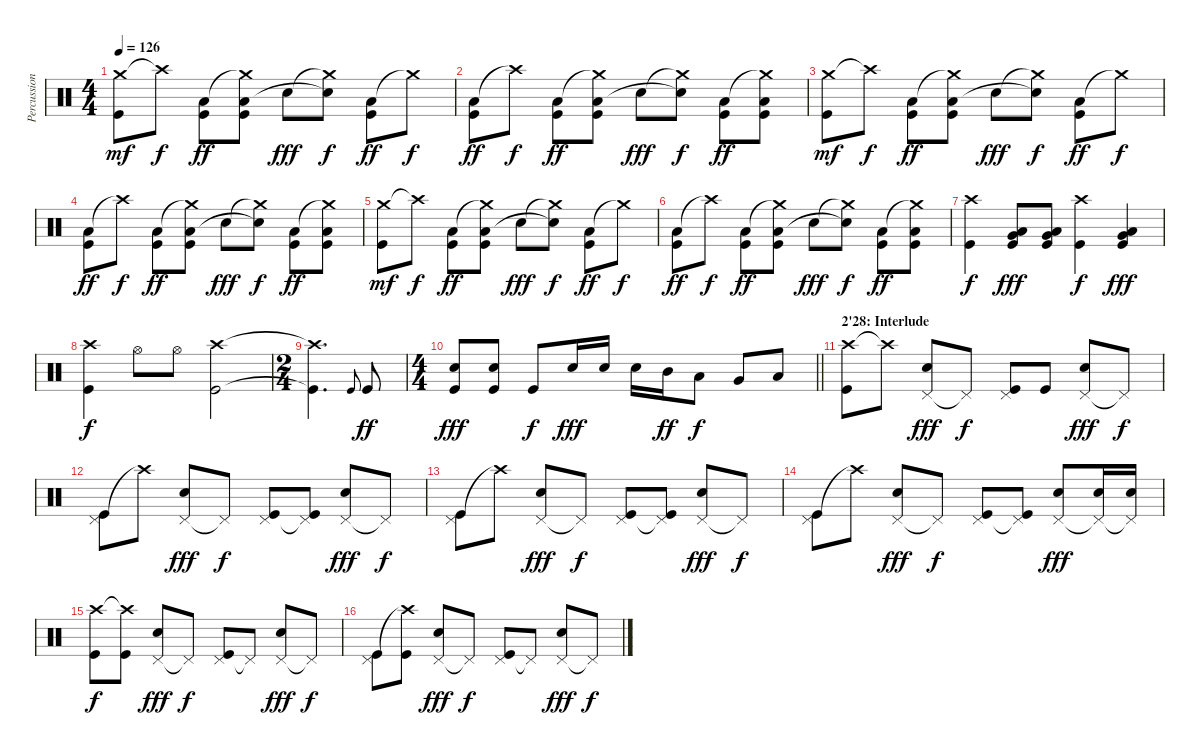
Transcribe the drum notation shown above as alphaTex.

\track ("Percussions" "Percussion") {instrument percussion}
\staff {score}
\articulation defaults
\ts (4 4)
\tempo 126
\clef neutral
\ks c
("Crash medium (hit)" "Kick (hit)").8{dy mf} "Crash high (hit)"{t}.8{dy f} ("Low Floor Tom (hit)" "Kick (hit)").8{dy ff} ("Crash medium (hit)"{t} "Low Floor Tom (hit)" "Kick (hit)").8 "Snare (hit) 2".8{dy fff} ("Crash medium (hit)"{t} "Snare (hit) 2"{t}).8{dy f} ("Low Floor Tom (hit)" "Kick (hit)").8{dy ff} "Crash medium (hit)"{t}.8{dy f} |
("Low Floor Tom (hit)" "Kick (hit)").8{dy ff} "Crash high (hit)"{t}.8{dy f} ("Low Floor Tom (hit)" "Kick (hit)").8{dy ff} ("Crash medium (hit)"{t} "Low Floor Tom (hit)" "Kick (hit)").8 "Snare (hit) 2".8{dy fff} ("Crash medium (hit)"{t} "Snare (hit) 2"{t}).8{dy f} ("Low Floor Tom (hit)" "Kick (hit)").8{dy ff} ("Crash medium (hit)"{t} "Low Floor Tom (hit)" "Kick (hit)").8 |
("Crash medium (hit)" "Kick (hit)").8{dy mf} "Crash high (hit)"{t}.8{dy f} ("Low Floor Tom (hit)" "Kick (hit)").8{dy ff} ("Crash medium (hit)"{t} "Low Floor Tom (hit)" "Kick (hit)").8 "Snare (hit) 2".8{dy fff} ("Crash medium (hit)"{t} "Snare (hit) 2"{t}).8{dy f} ("Low Floor Tom (hit)" "Kick (hit)").8{dy ff} "Crash medium (hit)"{t}.8{dy f} |
("Low Floor Tom (hit)" "Kick (hit)").8{dy ff} "Crash high (hit)"{t}.8{dy f} ("Low Floor Tom (hit)" "Kick (hit)").8{dy ff} ("Crash medium (hit)"{t} "Low Floor Tom (hit)" "Kick (hit)").8 "Snare (hit) 2".8{dy fff} ("Crash medium (hit)"{t} "Snare (hit) 2"{t}).8{dy f} ("Low Floor Tom (hit)" "Kick (hit)").8{dy ff} ("Crash medium (hit)"{t} "Low Floor Tom (hit)" "Kick (hit)").8 |
("Crash medium (hit)" "Kick (hit)").8{dy mf} "Crash high (hit)"{t}.8{dy f} ("Low Floor Tom (hit)" "Kick (hit)").8{dy ff} ("Crash medium (hit)"{t} "Low Floor Tom (hit)" "Kick (hit)").8 "Snare (hit) 2".8{dy fff} ("Crash medium (hit)"{t} "Snare (hit) 2"{t}).8{dy f} ("Low Floor Tom (hit)" "Kick (hit)").8{dy ff} "Crash medium (hit)"{t}.8{dy f} |
("Low Floor Tom (hit)" "Kick (hit)").8{dy ff} "Crash high (hit)"{t}.8{dy f} ("Low Floor Tom (hit)" "Kick (hit)").8{dy ff} ("Crash medium (hit)"{t} "Low Floor Tom (hit)" "Kick (hit)").8 "Snare (hit) 2".8{dy fff} ("Crash medium (hit)"{t} "Snare (hit) 2"{t}).8{dy f} ("Low Floor Tom (hit)" "Kick (hit)").8{dy ff} ("Crash medium (hit)"{t} "Low Floor Tom (hit)" "Kick (hit)").8 |
("Crash high (hit)" "Kick (hit)").4{dy f} ("Very Low Tom (hit)" "Low Floor Tom (hit)" "Kick (hit)").8{dy fff} ("Very Low Tom (hit)" "Low Floor Tom (hit)" "Kick (hit)").8 ("Crash high (hit)" "Kick (hit)").4{dy f} ("Very Low Tom (hit)" "Low Floor Tom (hit)" "Kick (hit)").4{dy fff} |
("Crash high (hit)" "Kick (hit)").4{dy f} "Hi-Hat (open)".8 "Hi-Hat (open)".8 ("Crash high (hit)" "Kick (hit)").2 |
\ts (2 4)
("Crash high (hit)"{t} "Kick (hit)"{t}).4{d} "Kick (hit)".8{gr onbeat} "Kick (hit)".8{dy ff} |
\ts (4 4)
\barLineRight lightlight
("Snare (hit) 2" "Kick (hit)").8{dy fff} ("Snare (hit) 2" "Kick (hit)").8 "Kick (hit)".8{dy f} "Snare (hit) 2".16{dy fff} "Snare (hit) 2".16 "Snare (hit) 2".16 "Mid Tom (hit)".16{dy ff} "Low Tom (hit)".8{dy f} "Very Low Tom (hit)".8 "Low Floor Tom (hit)".8 |
\section ("" "2'28: Interlude")
("Crash high (hit)" "Kick (hit)").8 "Crash high (hit)"{t}.8 ("Pedal Hi-Hat (hit)" "Snare (hit) 2").8{dy fff} "Pedal Hi-Hat (hit)"{t}.8{dy f} ("Pedal Hi-Hat (hit)" "Kick (hit)").8 "Kick (hit)".8 ("Pedal Hi-Hat (hit)" "Snare (hit) 2").8{dy fff} "Pedal Hi-Hat (hit)"{t}.8{dy f} |
("Pedal Hi-Hat (hit)" "Kick (hit)").8 "Crash high (hit)"{t}.8 ("Pedal Hi-Hat (hit)" "Snare (hit) 2").8{dy fff} "Pedal Hi-Hat (hit)"{t}.8{dy f} ("Pedal Hi-Hat (hit)" "Kick (hit)").8 ("Pedal Hi-Hat (hit)"{t} "Kick (hit)").8 ("Pedal Hi-Hat (hit)" "Snare (hit) 2").8{dy fff} "Pedal Hi-Hat (hit)"{t}.8{dy f} |
("Pedal Hi-Hat (hit)" "Kick (hit)").8 "Crash high (hit)"{t}.8 ("Pedal Hi-Hat (hit)" "Snare (hit) 2").8{dy fff} "Pedal Hi-Hat (hit)"{t}.8{dy f} ("Pedal Hi-Hat (hit)" "Kick (hit)").8 ("Pedal Hi-Hat (hit)"{t} "Kick (hit)").8 ("Pedal Hi-Hat (hit)" "Snare (hit) 2").8{dy fff} "Pedal Hi-Hat (hit)"{t}.8{dy f} |
("Pedal Hi-Hat (hit)" "Kick (hit)").8 "Crash high (hit)"{t}.8 ("Pedal Hi-Hat (hit)" "Snare (hit) 2").8{dy fff} "Pedal Hi-Hat (hit)"{t}.8{dy f} ("Pedal Hi-Hat (hit)" "Kick (hit)").8 ("Pedal Hi-Hat (hit)"{t} "Kick (hit)").8 ("Pedal Hi-Hat (hit)" "Snare (hit) 2").8{dy fff} ("Pedal Hi-Hat (hit)"{t} "Snare (hit) 2").16 ("Pedal Hi-Hat (hit)"{t} "Snare (hit) 2").16 |
("Crash high (hit)" "Kick (hit)").8{dy f} ("Crash high (hit)"{t} "Kick (hit)").8 ("Pedal Hi-Hat (hit)" "Snare (hit) 2").8{dy fff} "Pedal Hi-Hat (hit)"{t}.8{dy f} ("Pedal Hi-Hat (hit)" "Kick (hit)").8 "Pedal Hi-Hat (hit)"{t}.8 ("Pedal Hi-Hat (hit)" "Snare (hit) 2").8{dy fff} "Pedal Hi-Hat (hit)"{t}.8{dy f} |
("Pedal Hi-Hat (hit)" "Kick (hit)").8 ("Crash high (hit)"{t} "Kick (hit)").8 ("Pedal Hi-Hat (hit)" "Snare (hit) 2").8{dy fff} "Pedal Hi-Hat (hit)"{t}.8{dy f} ("Pedal Hi-Hat (hit)" "Kick (hit)").8 "Pedal Hi-Hat (hit)"{t}.8 ("Pedal Hi-Hat (hit)" "Snare (hit) 2").8{dy fff} "Pedal Hi-Hat (hit)"{t}.8{dy f}
